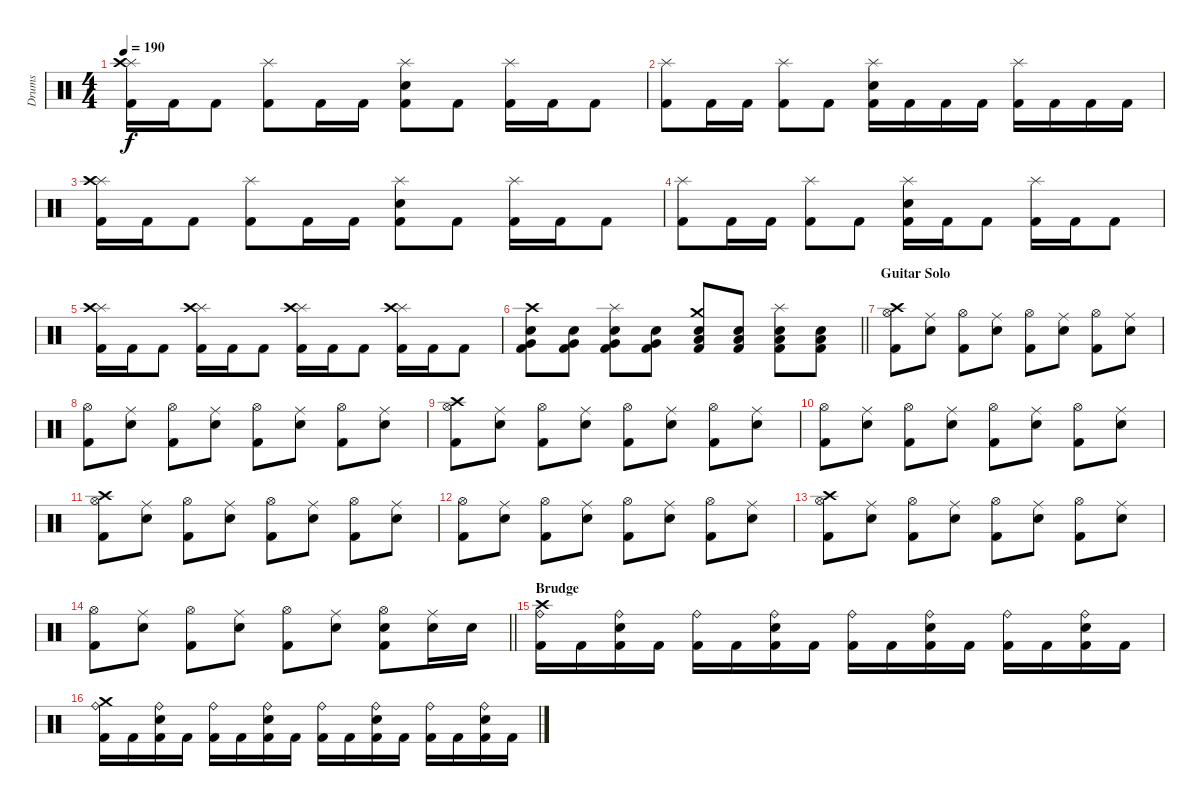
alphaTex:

\track ("Drums" "Drums") {instrument percussion}
\staff {score}
\articulation defaults
\ts (4 4)
\tempo 190
\clef neutral
\ks c
("Splash (hit)" "Crash high (hit)" "Kick (hit) 2").16{dy f} "Kick (hit) 2".16 "Kick (hit) 2".8 ("Splash (hit)" "Kick (hit) 2").8 "Kick (hit) 2".16 "Kick (hit) 2".16 ("Splash (hit)" "Snare (hit) 2" "Kick (hit) 2").8 "Kick (hit) 2".8 ("Splash (hit)" "Kick (hit) 2").16 "Kick (hit) 2".16 "Kick (hit) 2".8 |
("Splash (hit)" "Kick (hit) 2").8 "Kick (hit) 2".16 "Kick (hit) 2".16 ("Splash (hit)" "Kick (hit) 2").8 "Kick (hit) 2".8 ("Splash (hit)" "Snare (hit) 2" "Kick (hit) 2").16 "Kick (hit) 2".16 "Kick (hit) 2".16 "Kick (hit) 2".16 ("Splash (hit)" "Kick (hit) 2").16 "Kick (hit) 2".16 "Kick (hit) 2".16 "Kick (hit) 2".16 |
("Splash (hit)" "Crash high (hit)" "Kick (hit) 2").16 "Kick (hit) 2".16 "Kick (hit) 2".8 ("Splash (hit)" "Kick (hit) 2").8 "Kick (hit) 2".16 "Kick (hit) 2".16 ("Splash (hit)" "Snare (hit) 2" "Kick (hit) 2").8 "Kick (hit) 2".8 ("Splash (hit)" "Kick (hit) 2").16 "Kick (hit) 2".16 "Kick (hit) 2".8 |
("Splash (hit)" "Kick (hit) 2").8 "Kick (hit) 2".16 "Kick (hit) 2".16 ("Splash (hit)" "Kick (hit) 2").8 "Kick (hit) 2".8 ("Splash (hit)" "Snare (hit) 2" "Kick (hit) 2").16 "Kick (hit) 2".16 "Kick (hit) 2".8 ("Splash (hit)" "Kick (hit) 2").16 "Kick (hit) 2".16 "Kick (hit) 2".8 |
("Splash (hit)" "Crash high (hit)" "Kick (hit) 2").16 "Kick (hit) 2".16 "Kick (hit) 2".8 ("Splash (hit)" "Crash high (hit)" "Kick (hit) 2").16 "Kick (hit) 2".16 "Kick (hit) 2".8 ("Splash (hit)" "Crash high (hit)" "Kick (hit) 2").16 "Kick (hit) 2".16 "Kick (hit) 2".8 ("Splash (hit)" "Crash high (hit)" "Kick (hit) 2").16 "Kick (hit) 2".16 "Kick (hit) 2".8 |
\barLineRight lightlight
("Crash high (hit)" "Very Low Tom (hit)" "Snare (hit) 2" "Kick (hit) 2").8 ("Very Low Tom (hit)" "Snare (hit) 2" "Kick (hit) 2").8 ("Splash (hit)" "Very Low Tom (hit)" "Snare (hit) 2" "Kick (hit) 2").8 ("Very Low Tom (hit)" "Snare (hit) 2" "Kick (hit) 2").8 ("Crash medium (hit)" "Low Tom (hit)" "Snare (hit) 2" "Kick (hit) 2").8 ("Low Tom (hit)" "Snare (hit) 2" "Kick (hit) 2").8 ("Splash (hit)" "Low Tom (hit)" "Snare (hit) 2" "Kick (hit) 2").8 ("Low Tom (hit)" "Snare (hit) 2" "Kick (hit) 2").8 |
\section ("" "Guitar Solo")
("Crash high (hit)" "Hi-Hat (open)" "Kick (hit) 2").8 ("Ride (middle)" "Snare (hit) 2").8 ("Hi-Hat (open)" "Kick (hit) 2").8 ("Ride (middle)" "Snare (hit) 2").8 ("Hi-Hat (open)" "Kick (hit) 2").8 ("Ride (middle)" "Snare (hit) 2").8 ("Hi-Hat (open)" "Kick (hit) 2").8 ("Ride (middle)" "Snare (hit) 2").8 |
("Hi-Hat (open)" "Kick (hit) 2").8 ("Ride (middle)" "Snare (hit) 2").8 ("Hi-Hat (open)" "Kick (hit) 2").8 ("Ride (middle)" "Snare (hit) 2").8 ("Hi-Hat (open)" "Kick (hit) 2").8 ("Ride (middle)" "Snare (hit) 2").8 ("Hi-Hat (open)" "Kick (hit) 2").8 ("Ride (middle)" "Snare (hit) 2").8 |
("Crash high (hit)" "Hi-Hat (open)" "Kick (hit) 2").8 ("Ride (middle)" "Snare (hit) 2").8 ("Hi-Hat (open)" "Kick (hit) 2").8 ("Ride (middle)" "Snare (hit) 2").8 ("Hi-Hat (open)" "Kick (hit) 2").8 ("Ride (middle)" "Snare (hit) 2").8 ("Hi-Hat (open)" "Kick (hit) 2").8 ("Ride (middle)" "Snare (hit) 2").8 |
("Hi-Hat (open)" "Kick (hit) 2").8 ("Ride (middle)" "Snare (hit) 2").8 ("Hi-Hat (open)" "Kick (hit) 2").8 ("Ride (middle)" "Snare (hit) 2").8 ("Hi-Hat (open)" "Kick (hit) 2").8 ("Ride (middle)" "Snare (hit) 2").8 ("Hi-Hat (open)" "Kick (hit) 2").8 ("Ride (middle)" "Snare (hit) 2").8 |
("Crash high (hit)" "Hi-Hat (open)" "Kick (hit) 2").8 ("Ride (middle)" "Snare (hit) 2").8 ("Hi-Hat (open)" "Kick (hit) 2").8 ("Ride (middle)" "Snare (hit) 2").8 ("Hi-Hat (open)" "Kick (hit) 2").8 ("Ride (middle)" "Snare (hit) 2").8 ("Hi-Hat (open)" "Kick (hit) 2").8 ("Ride (middle)" "Snare (hit) 2").8 |
("Hi-Hat (open)" "Kick (hit) 2").8 ("Ride (middle)" "Snare (hit) 2").8 ("Hi-Hat (open)" "Kick (hit) 2").8 ("Ride (middle)" "Snare (hit) 2").8 ("Hi-Hat (open)" "Kick (hit) 2").8 ("Ride (middle)" "Snare (hit) 2").8 ("Hi-Hat (open)" "Kick (hit) 2").8 ("Ride (middle)" "Snare (hit) 2").8 |
("Crash high (hit)" "Hi-Hat (open)" "Kick (hit) 2").8 ("Ride (middle)" "Snare (hit) 2").8 ("Hi-Hat (open)" "Kick (hit) 2").8 ("Ride (middle)" "Snare (hit) 2").8 ("Hi-Hat (open)" "Kick (hit) 2").8 ("Ride (middle)" "Snare (hit) 2").8 ("Hi-Hat (open)" "Kick (hit) 2").8 ("Ride (middle)" "Snare (hit) 2").8 |
\barLineRight lightlight
("Hi-Hat (open)" "Kick (hit) 2").8 ("Ride (middle)" "Snare (hit) 2").8 ("Hi-Hat (open)" "Kick (hit) 2").8 ("Ride (middle)" "Snare (hit) 2").8 ("Hi-Hat (open)" "Kick (hit) 2").8 ("Ride (middle)" "Snare (hit) 2").8 ("Hi-Hat (open)" "Snare (hit) 2" "Kick (hit) 2").8 ("Ride (middle)" "Snare (hit) 2").16 "Snare (hit) 2".16 |
\section ("" "Brudge")
("Crash high (hit)" "Ride (bell)" "Kick (hit) 2").16 "Kick (hit) 2".16 ("Ride (bell)" "Snare (hit) 2" "Kick (hit) 2").16 "Kick (hit) 2".16 ("Ride (bell)" "Kick (hit) 2").16 "Kick (hit) 2".16 ("Ride (bell)" "Snare (hit) 2" "Kick (hit) 2").16 "Kick (hit) 2".16 ("Ride (bell)" "Kick (hit) 2").16 "Kick (hit) 2".16 ("Ride (bell)" "Snare (hit) 2" "Kick (hit) 2").16 "Kick (hit) 2".16 ("Ride (bell)" "Kick (hit) 2").16 "Kick (hit) 2".16 ("Ride (bell)" "Snare (hit) 2" "Kick (hit) 2").16 "Kick (hit) 2".16 |
("Crash medium (hit)" "Ride (bell)" "Kick (hit) 2").16 "Kick (hit) 2".16 ("Ride (bell)" "Snare (hit) 2" "Kick (hit) 2").16 "Kick (hit) 2".16 ("Ride (bell)" "Kick (hit) 2").16 "Kick (hit) 2".16 ("Ride (bell)" "Snare (hit) 2" "Kick (hit) 2").16 "Kick (hit) 2".16 ("Ride (bell)" "Kick (hit) 2").16 "Kick (hit) 2".16 ("Ride (bell)" "Snare (hit) 2" "Kick (hit) 2").16 "Kick (hit) 2".16 ("Ride (bell)" "Kick (hit) 2").16 "Kick (hit) 2".16 ("Ride (bell)" "Snare (hit) 2" "Kick (hit) 2").16 "Kick (hit) 2".16
